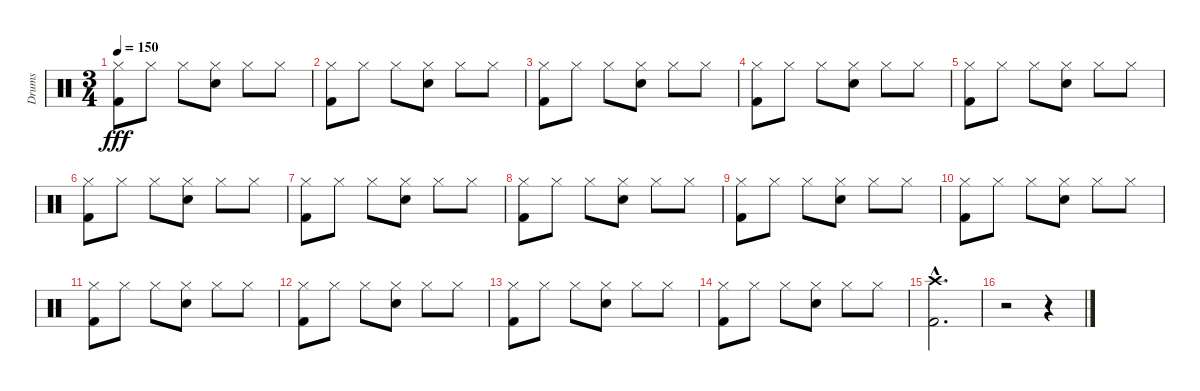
\track ("Drums" "Drums") {instrument percussion}
\staff {score}
\articulation defaults
\ts (3 4)
\tempo 150
\clef neutral
\ks c
("Hi-Hat (closed)" "Kick (hit) 2").8{dy fff} "Hi-Hat (closed)".8 "Hi-Hat (closed)".8 ("Hi-Hat (closed)" "Snare (hit) 2").8 "Hi-Hat (closed)".8 "Hi-Hat (closed)".8 |
("Hi-Hat (closed)" "Kick (hit) 2").8 "Hi-Hat (closed)".8 "Hi-Hat (closed)".8 ("Hi-Hat (closed)" "Snare (hit) 2").8 "Hi-Hat (closed)".8 "Hi-Hat (closed)".8 |
("Hi-Hat (closed)" "Kick (hit) 2").8 "Hi-Hat (closed)".8 "Hi-Hat (closed)".8 ("Hi-Hat (closed)" "Snare (hit) 2").8 "Hi-Hat (closed)".8 "Hi-Hat (closed)".8 |
("Hi-Hat (closed)" "Kick (hit) 2").8 "Hi-Hat (closed)".8 "Hi-Hat (closed)".8 ("Hi-Hat (closed)" "Snare (hit) 2").8 "Hi-Hat (closed)".8 "Hi-Hat (closed)".8 |
("Hi-Hat (closed)" "Kick (hit) 2").8 "Hi-Hat (closed)".8 "Hi-Hat (closed)".8 ("Hi-Hat (closed)" "Snare (hit) 2").8 "Hi-Hat (closed)".8 "Hi-Hat (closed)".8 |
("Hi-Hat (closed)" "Kick (hit) 2").8 "Hi-Hat (closed)".8 "Hi-Hat (closed)".8 ("Hi-Hat (closed)" "Snare (hit) 2").8 "Hi-Hat (closed)".8 "Hi-Hat (closed)".8 |
("Hi-Hat (closed)" "Kick (hit) 2").8 "Hi-Hat (closed)".8 "Hi-Hat (closed)".8 ("Hi-Hat (closed)" "Snare (hit) 2").8 "Hi-Hat (closed)".8 "Hi-Hat (closed)".8 |
("Hi-Hat (closed)" "Kick (hit) 2").8 "Hi-Hat (closed)".8 "Hi-Hat (closed)".8 ("Hi-Hat (closed)" "Snare (hit) 2").8 "Hi-Hat (closed)".8 "Hi-Hat (closed)".8 |
("Hi-Hat (closed)" "Kick (hit) 2").8 "Hi-Hat (closed)".8 "Hi-Hat (closed)".8 ("Hi-Hat (closed)" "Snare (hit) 2").8 "Hi-Hat (closed)".8 "Hi-Hat (closed)".8 |
("Hi-Hat (closed)" "Kick (hit) 2").8 "Hi-Hat (closed)".8 "Hi-Hat (closed)".8 ("Hi-Hat (closed)" "Snare (hit) 2").8 "Hi-Hat (closed)".8 "Hi-Hat (closed)".8 |
("Hi-Hat (closed)" "Kick (hit) 2").8 "Hi-Hat (closed)".8 "Hi-Hat (closed)".8 ("Hi-Hat (closed)" "Snare (hit) 2").8 "Hi-Hat (closed)".8 "Hi-Hat (closed)".8 |
("Hi-Hat (closed)" "Kick (hit) 2").8 "Hi-Hat (closed)".8 "Hi-Hat (closed)".8 ("Hi-Hat (closed)" "Snare (hit) 2").8 "Hi-Hat (closed)".8 "Hi-Hat (closed)".8 |
("Hi-Hat (closed)" "Kick (hit) 2").8 "Hi-Hat (closed)".8 "Hi-Hat (closed)".8 ("Hi-Hat (closed)" "Snare (hit) 2").8 "Hi-Hat (closed)".8 "Hi-Hat (closed)".8 |
("Hi-Hat (closed)" "Kick (hit) 2").8 "Hi-Hat (closed)".8 "Hi-Hat (closed)".8 ("Hi-Hat (closed)" "Snare (hit) 2").8 "Hi-Hat (closed)".8 "Hi-Hat (closed)".8 |
("Kick (hit) 2"{hac} "Crash high (hit)"{hac}).2{d} |
r.2 r.4
